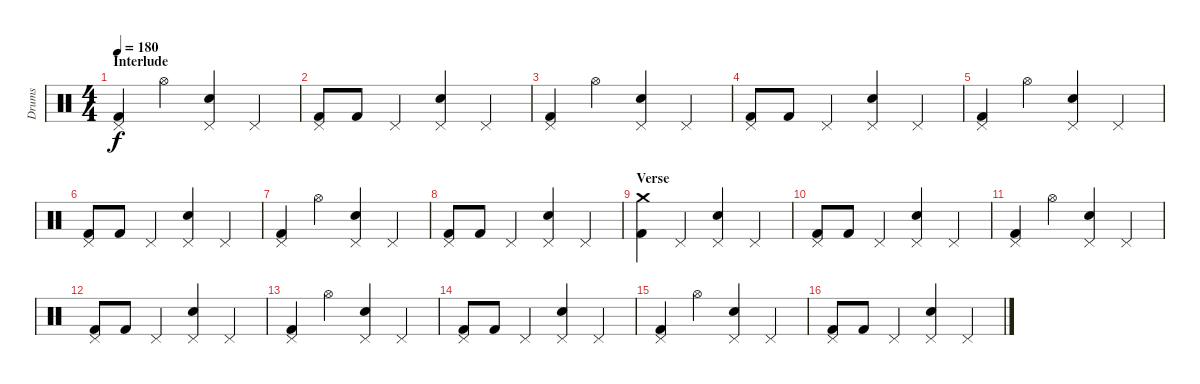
\track ("Drums" "Drums") {instrument percussion}
\staff {score}
\articulation defaults
\ts (4 4)
\section ("" "Interlude")
\tempo 180
\clef neutral
\ks c
("Pedal Hi-Hat (hit)" "Kick (hit) 2").4{dy f} "Hi-Hat (open)".4 ("Pedal Hi-Hat (hit)" "Electric Snare (hit)").4 "Pedal Hi-Hat (hit)".4 |
("Pedal Hi-Hat (hit)" "Kick (hit) 2").8 "Kick (hit) 2".8 "Pedal Hi-Hat (hit)".4 ("Pedal Hi-Hat (hit)" "Electric Snare (hit)").4 "Pedal Hi-Hat (hit)".4 |
("Pedal Hi-Hat (hit)" "Kick (hit) 2").4 "Hi-Hat (open)".4 ("Pedal Hi-Hat (hit)" "Electric Snare (hit)").4 "Pedal Hi-Hat (hit)".4 |
("Pedal Hi-Hat (hit)" "Kick (hit) 2").8 "Kick (hit) 2".8 "Pedal Hi-Hat (hit)".4 ("Pedal Hi-Hat (hit)" "Electric Snare (hit)").4 "Pedal Hi-Hat (hit)".4 |
("Pedal Hi-Hat (hit)" "Kick (hit) 2").4 "Hi-Hat (open)".4 ("Pedal Hi-Hat (hit)" "Electric Snare (hit)").4 "Pedal Hi-Hat (hit)".4 |
("Pedal Hi-Hat (hit)" "Kick (hit) 2").8 "Kick (hit) 2".8 "Pedal Hi-Hat (hit)".4 ("Pedal Hi-Hat (hit)" "Electric Snare (hit)").4 "Pedal Hi-Hat (hit)".4 |
("Pedal Hi-Hat (hit)" "Kick (hit) 2").4 "Hi-Hat (open)".4 ("Pedal Hi-Hat (hit)" "Electric Snare (hit)").4 "Pedal Hi-Hat (hit)".4 |
("Pedal Hi-Hat (hit)" "Kick (hit) 2").8 "Kick (hit) 2".8 "Pedal Hi-Hat (hit)".4 ("Pedal Hi-Hat (hit)" "Electric Snare (hit)").4 "Pedal Hi-Hat (hit)".4 |
\section ("" "Verse")
("Crash medium (hit)" "Kick (hit) 2").4 "Pedal Hi-Hat (hit)".4 ("Pedal Hi-Hat (hit)" "Electric Snare (hit)").4 "Pedal Hi-Hat (hit)".4 |
("Pedal Hi-Hat (hit)" "Kick (hit) 2").8 "Kick (hit) 2".8 "Pedal Hi-Hat (hit)".4 ("Pedal Hi-Hat (hit)" "Electric Snare (hit)").4 "Pedal Hi-Hat (hit)".4 |
("Pedal Hi-Hat (hit)" "Kick (hit) 2").4 "Hi-Hat (open)".4 ("Pedal Hi-Hat (hit)" "Electric Snare (hit)").4 "Pedal Hi-Hat (hit)".4 |
("Pedal Hi-Hat (hit)" "Kick (hit) 2").8 "Kick (hit) 2".8 "Pedal Hi-Hat (hit)".4 ("Pedal Hi-Hat (hit)" "Electric Snare (hit)").4 "Pedal Hi-Hat (hit)".4 |
("Pedal Hi-Hat (hit)" "Kick (hit) 2").4 "Hi-Hat (open)".4 ("Pedal Hi-Hat (hit)" "Electric Snare (hit)").4 "Pedal Hi-Hat (hit)".4 |
("Pedal Hi-Hat (hit)" "Kick (hit) 2").8 "Kick (hit) 2".8 "Pedal Hi-Hat (hit)".4 ("Pedal Hi-Hat (hit)" "Electric Snare (hit)").4 "Pedal Hi-Hat (hit)".4 |
("Pedal Hi-Hat (hit)" "Kick (hit) 2").4 "Hi-Hat (open)".4 ("Pedal Hi-Hat (hit)" "Electric Snare (hit)").4 "Pedal Hi-Hat (hit)".4 |
("Pedal Hi-Hat (hit)" "Kick (hit) 2").8 "Kick (hit) 2".8 "Pedal Hi-Hat (hit)".4 ("Pedal Hi-Hat (hit)" "Electric Snare (hit)").4 "Pedal Hi-Hat (hit)".4
